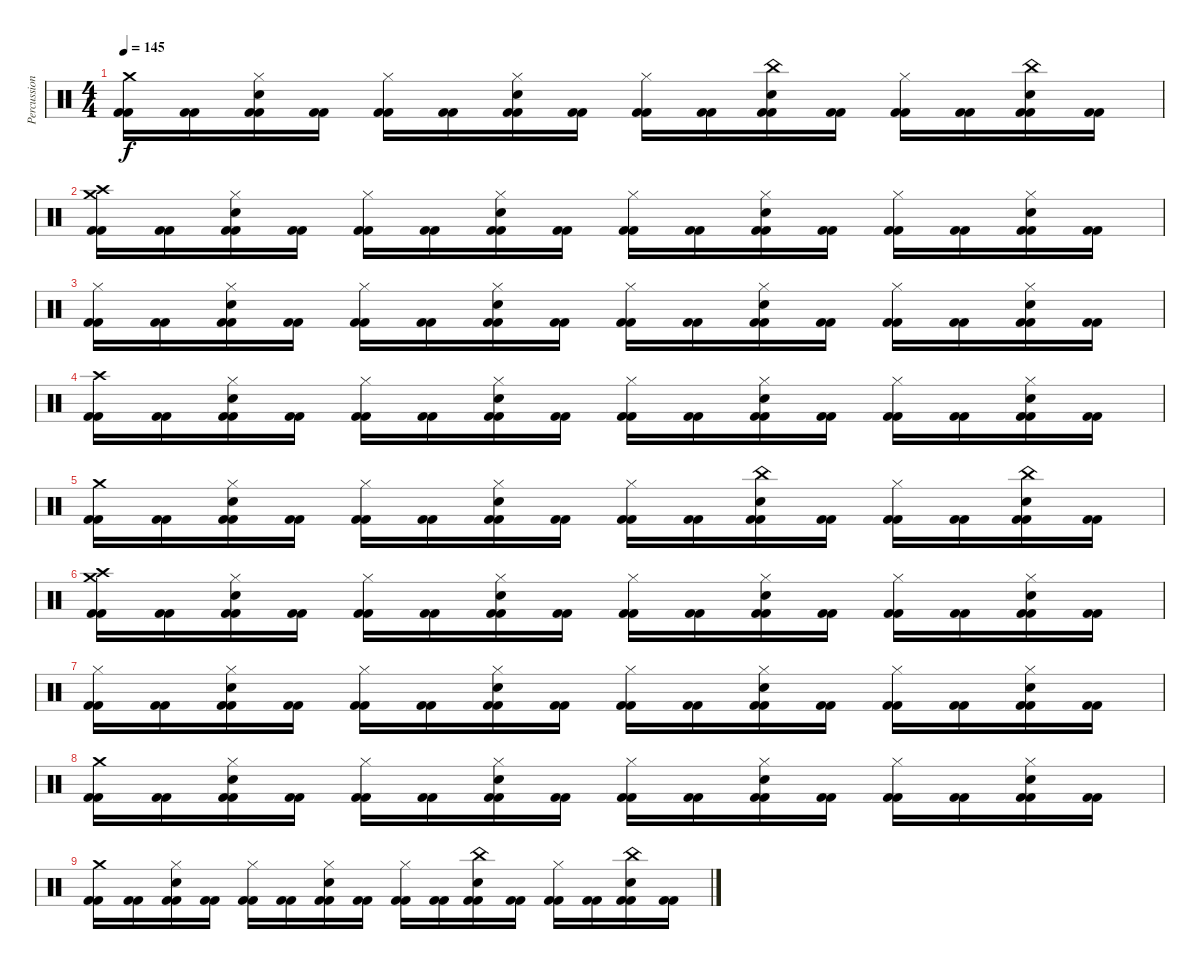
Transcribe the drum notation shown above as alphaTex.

\track ("Percussion" "Percussion") {instrument percussion}
\staff {score}
\articulation defaults
\ts (4 4)
\tempo 145
\clef neutral
\ks c
("Crash medium (hit)" "Kick (hit) 2" "Kick (hit) 2").16{dy f} ("Kick (hit) 2" "Kick (hit) 2").16 ("Hi-Hat (closed)" "Snare (hit) 2" "Kick (hit) 2" "Kick (hit) 2").16 ("Kick (hit) 2" "Kick (hit) 2").16 ("Hi-Hat (closed)" "Kick (hit) 2" "Kick (hit) 2").16 ("Kick (hit) 2" "Kick (hit) 2").16 ("Hi-Hat (closed)" "Snare (hit) 2" "Kick (hit) 2" "Kick (hit) 2").16 ("Kick (hit) 2" "Kick (hit) 2").16 ("Hi-Hat (closed)" "Kick (hit) 2" "Kick (hit) 2").16 ("Kick (hit) 2" "Kick (hit) 2").16 ("China (hit)" "Snare (hit) 2" "Kick (hit) 2" "Kick (hit) 2").16 ("Kick (hit) 2" "Kick (hit) 2").16 ("Hi-Hat (closed)" "Kick (hit) 2" "Kick (hit) 2").16 ("Kick (hit) 2" "Kick (hit) 2").16 ("China (hit)" "Snare (hit) 2" "Kick (hit) 2" "Kick (hit) 2").16 ("Kick (hit) 2" "Kick (hit) 2").16 |
("Crash high (hit)" "Crash medium (hit)" "Kick (hit) 2" "Kick (hit) 2").16{volume 8} ("Kick (hit) 2" "Kick (hit) 2").16 ("Hi-Hat (closed)" "Snare (hit) 2" "Kick (hit) 2" "Kick (hit) 2").16 ("Kick (hit) 2" "Kick (hit) 2").16 ("Hi-Hat (closed)" "Kick (hit) 2" "Kick (hit) 2").16 ("Kick (hit) 2" "Kick (hit) 2").16 ("Hi-Hat (closed)" "Snare (hit) 2" "Kick (hit) 2" "Kick (hit) 2").16 ("Kick (hit) 2" "Kick (hit) 2").16 ("Hi-Hat (closed)" "Kick (hit) 2" "Kick (hit) 2").16 ("Kick (hit) 2" "Kick (hit) 2").16 ("Hi-Hat (closed)" "Snare (hit) 2" "Kick (hit) 2" "Kick (hit) 2").16 ("Kick (hit) 2" "Kick (hit) 2").16 ("Hi-Hat (closed)" "Kick (hit) 2" "Kick (hit) 2").16 ("Kick (hit) 2" "Kick (hit) 2").16 ("Hi-Hat (closed)" "Snare (hit) 2" "Kick (hit) 2" "Kick (hit) 2").16 ("Kick (hit) 2" "Kick (hit) 2").16 |
("Hi-Hat (closed)" "Kick (hit) 2" "Kick (hit) 2").16 ("Kick (hit) 2" "Kick (hit) 2").16 ("Hi-Hat (closed)" "Snare (hit) 2" "Kick (hit) 2" "Kick (hit) 2").16 ("Kick (hit) 2" "Kick (hit) 2").16 ("Hi-Hat (closed)" "Kick (hit) 2" "Kick (hit) 2").16 ("Kick (hit) 2" "Kick (hit) 2").16 ("Hi-Hat (closed)" "Snare (hit) 2" "Kick (hit) 2" "Kick (hit) 2").16 ("Kick (hit) 2" "Kick (hit) 2").16 ("Hi-Hat (closed)" "Kick (hit) 2" "Kick (hit) 2").16 ("Kick (hit) 2" "Kick (hit) 2").16 ("Hi-Hat (closed)" "Snare (hit) 2" "Kick (hit) 2" "Kick (hit) 2").16 ("Kick (hit) 2" "Kick (hit) 2").16 ("Hi-Hat (closed)" "Kick (hit) 2" "Kick (hit) 2").16 ("Kick (hit) 2" "Kick (hit) 2").16 ("Hi-Hat (closed)" "Snare (hit) 2" "Kick (hit) 2" "Kick (hit) 2").16 ("Kick (hit) 2" "Kick (hit) 2").16 |
("Crash high (hit)" "Kick (hit) 2" "Kick (hit) 2").16 ("Kick (hit) 2" "Kick (hit) 2").16 ("Hi-Hat (closed)" "Snare (hit) 2" "Kick (hit) 2" "Kick (hit) 2").16 ("Kick (hit) 2" "Kick (hit) 2").16 ("Hi-Hat (closed)" "Kick (hit) 2" "Kick (hit) 2").16 ("Kick (hit) 2" "Kick (hit) 2").16 ("Hi-Hat (closed)" "Snare (hit) 2" "Kick (hit) 2" "Kick (hit) 2").16 ("Kick (hit) 2" "Kick (hit) 2").16 ("Hi-Hat (closed)" "Kick (hit) 2" "Kick (hit) 2").16 ("Kick (hit) 2" "Kick (hit) 2").16 ("Hi-Hat (closed)" "Snare (hit) 2" "Kick (hit) 2" "Kick (hit) 2").16 ("Kick (hit) 2" "Kick (hit) 2").16 ("Hi-Hat (closed)" "Kick (hit) 2" "Kick (hit) 2").16 ("Kick (hit) 2" "Kick (hit) 2").16 ("Hi-Hat (closed)" "Snare (hit) 2" "Kick (hit) 2" "Kick (hit) 2").16 ("Kick (hit) 2" "Kick (hit) 2").16 |
("Crash medium (hit)" "Kick (hit) 2" "Kick (hit) 2").16 ("Kick (hit) 2" "Kick (hit) 2").16 ("Hi-Hat (closed)" "Snare (hit) 2" "Kick (hit) 2" "Kick (hit) 2").16 ("Kick (hit) 2" "Kick (hit) 2").16 ("Hi-Hat (closed)" "Kick (hit) 2" "Kick (hit) 2").16 ("Kick (hit) 2" "Kick (hit) 2").16 ("Hi-Hat (closed)" "Snare (hit) 2" "Kick (hit) 2" "Kick (hit) 2").16 ("Kick (hit) 2" "Kick (hit) 2").16 ("Hi-Hat (closed)" "Kick (hit) 2" "Kick (hit) 2").16 ("Kick (hit) 2" "Kick (hit) 2").16 ("China (hit)" "Snare (hit) 2" "Kick (hit) 2" "Kick (hit) 2").16 ("Kick (hit) 2" "Kick (hit) 2").16 ("Hi-Hat (closed)" "Kick (hit) 2" "Kick (hit) 2").16 ("Kick (hit) 2" "Kick (hit) 2").16 ("China (hit)" "Snare (hit) 2" "Kick (hit) 2" "Kick (hit) 2").16 ("Kick (hit) 2" "Kick (hit) 2").16 |
("Crash high (hit)" "Crash medium (hit)" "Kick (hit) 2" "Kick (hit) 2").16{volume 0} ("Kick (hit) 2" "Kick (hit) 2").16 ("Hi-Hat (closed)" "Snare (hit) 2" "Kick (hit) 2" "Kick (hit) 2").16 ("Kick (hit) 2" "Kick (hit) 2").16 ("Hi-Hat (closed)" "Kick (hit) 2" "Kick (hit) 2").16 ("Kick (hit) 2" "Kick (hit) 2").16 ("Hi-Hat (closed)" "Snare (hit) 2" "Kick (hit) 2" "Kick (hit) 2").16 ("Kick (hit) 2" "Kick (hit) 2").16 ("Hi-Hat (closed)" "Kick (hit) 2" "Kick (hit) 2").16 ("Kick (hit) 2" "Kick (hit) 2").16 ("Hi-Hat (closed)" "Snare (hit) 2" "Kick (hit) 2" "Kick (hit) 2").16 ("Kick (hit) 2" "Kick (hit) 2").16 ("Hi-Hat (closed)" "Kick (hit) 2" "Kick (hit) 2").16 ("Kick (hit) 2" "Kick (hit) 2").16 ("Hi-Hat (closed)" "Snare (hit) 2" "Kick (hit) 2" "Kick (hit) 2").16 ("Kick (hit) 2" "Kick (hit) 2").16 |
("Hi-Hat (closed)" "Kick (hit) 2" "Kick (hit) 2").16 ("Kick (hit) 2" "Kick (hit) 2").16 ("Hi-Hat (closed)" "Snare (hit) 2" "Kick (hit) 2" "Kick (hit) 2").16 ("Kick (hit) 2" "Kick (hit) 2").16 ("Hi-Hat (closed)" "Kick (hit) 2" "Kick (hit) 2").16 ("Kick (hit) 2" "Kick (hit) 2").16 ("Hi-Hat (closed)" "Snare (hit) 2" "Kick (hit) 2" "Kick (hit) 2").16 ("Kick (hit) 2" "Kick (hit) 2").16 ("Hi-Hat (closed)" "Kick (hit) 2" "Kick (hit) 2").16 ("Kick (hit) 2" "Kick (hit) 2").16 ("Hi-Hat (closed)" "Snare (hit) 2" "Kick (hit) 2" "Kick (hit) 2").16 ("Kick (hit) 2" "Kick (hit) 2").16 ("Hi-Hat (closed)" "Kick (hit) 2" "Kick (hit) 2").16 ("Kick (hit) 2" "Kick (hit) 2").16 ("Hi-Hat (closed)" "Snare (hit) 2" "Kick (hit) 2" "Kick (hit) 2").16 ("Kick (hit) 2" "Kick (hit) 2").16 |
("Crash medium (hit)" "Kick (hit) 2" "Kick (hit) 2").16 ("Kick (hit) 2" "Kick (hit) 2").16 ("Hi-Hat (closed)" "Snare (hit) 2" "Kick (hit) 2" "Kick (hit) 2").16 ("Kick (hit) 2" "Kick (hit) 2").16 ("Hi-Hat (closed)" "Kick (hit) 2" "Kick (hit) 2").16 ("Kick (hit) 2" "Kick (hit) 2").16 ("Hi-Hat (closed)" "Snare (hit) 2" "Kick (hit) 2" "Kick (hit) 2").16 ("Kick (hit) 2" "Kick (hit) 2").16 ("Hi-Hat (closed)" "Kick (hit) 2" "Kick (hit) 2").16 ("Kick (hit) 2" "Kick (hit) 2").16 ("Hi-Hat (closed)" "Snare (hit) 2" "Kick (hit) 2" "Kick (hit) 2").16 ("Kick (hit) 2" "Kick (hit) 2").16 ("Hi-Hat (closed)" "Kick (hit) 2" "Kick (hit) 2").16 ("Kick (hit) 2" "Kick (hit) 2").16 ("Hi-Hat (closed)" "Snare (hit) 2" "Kick (hit) 2" "Kick (hit) 2").16 ("Kick (hit) 2" "Kick (hit) 2").16 |
("Crash medium (hit)" "Kick (hit) 2" "Kick (hit) 2").16 ("Kick (hit) 2" "Kick (hit) 2").16 ("Hi-Hat (closed)" "Snare (hit) 2" "Kick (hit) 2" "Kick (hit) 2").16 ("Kick (hit) 2" "Kick (hit) 2").16 ("Hi-Hat (closed)" "Kick (hit) 2" "Kick (hit) 2").16 ("Kick (hit) 2" "Kick (hit) 2").16 ("Hi-Hat (closed)" "Snare (hit) 2" "Kick (hit) 2" "Kick (hit) 2").16 ("Kick (hit) 2" "Kick (hit) 2").16 ("Hi-Hat (closed)" "Kick (hit) 2" "Kick (hit) 2").16 ("Kick (hit) 2" "Kick (hit) 2").16 ("China (hit)" "Snare (hit) 2" "Kick (hit) 2" "Kick (hit) 2").16 ("Kick (hit) 2" "Kick (hit) 2").16 ("Hi-Hat (closed)" "Kick (hit) 2" "Kick (hit) 2").16 ("Kick (hit) 2" "Kick (hit) 2").16 ("China (hit)" "Snare (hit) 2" "Kick (hit) 2" "Kick (hit) 2").16 ("Kick (hit) 2" "Kick (hit) 2").16
